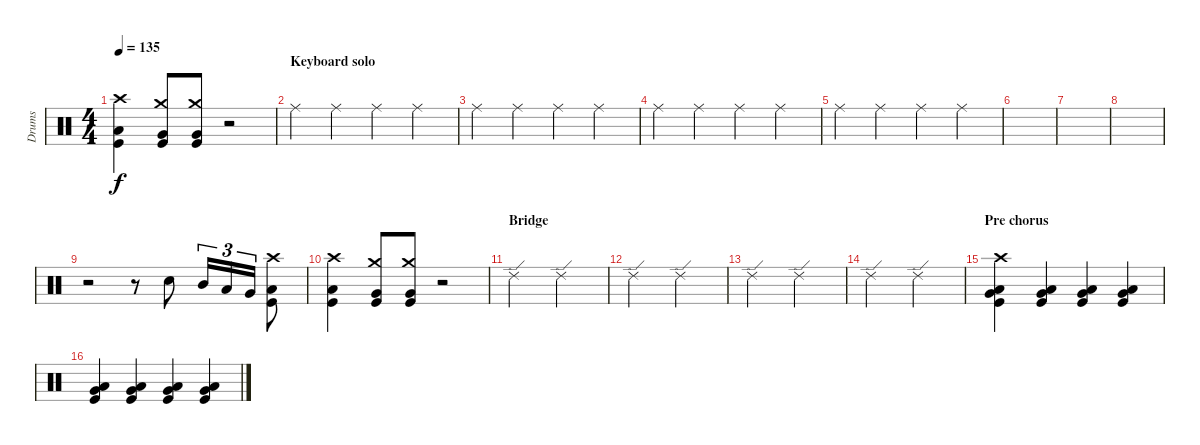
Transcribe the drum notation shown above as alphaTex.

\track ("Drums" "Drums") {instrument percussion}
\staff {score}
\articulation defaults
\ts (4 4)
\tempo 135
\clef neutral
\ks c
("Crash high (hit)" "Low Floor Tom (hit)" "Kick (hit)").4{dy f} ("Crash medium (hit)" "Very Low Tom (hit)" "Kick (hit)").8 ("Crash medium (hit)" "Very Low Tom (hit)" "Kick (hit)").8 r.2 |
\section ("" "Keyboard solo")
"Ride (middle)".4 "Ride (middle)".4 "Ride (middle)".4 "Ride (middle)".4 |
"Ride (middle)".4 "Ride (middle)".4 "Ride (middle)".4 "Ride (middle)".4 |
"Ride (middle)".4 "Ride (middle)".4 "Ride (middle)".4 "Ride (middle)".4 |
"Ride (middle)".4 "Ride (middle)".4 "Ride (middle)".4 "Ride (middle)".4 |
|
|
|
r.2 r.8 "Snare (hit) 2".8 "Mid Tom (hit)".16{tu (3 2)} "Low Tom (hit)".16{tu (3 2)} "Very Low Tom (hit)".16{tu (3 2)} ("Crash high (hit)" "Low Floor Tom (hit)" "Kick (hit)").8 |
("Crash high (hit)" "Low Floor Tom (hit)" "Kick (hit)").4 ("Crash medium (hit)" "Very Low Tom (hit)" "Kick (hit)").8 ("Crash medium (hit)" "Very Low Tom (hit)" "Kick (hit)").8 r.2 |
\section ("" "Bridge")
"Ride (edge) 2".2 "Ride (edge) 2".2 |
"Ride (edge) 2".2 "Ride (edge) 2".2 |
"Ride (edge) 2".2 "Ride (edge) 2".2 |
"Ride (edge) 2".2 "Ride (edge) 2".2 |
\section ("" "Pre chorus")
("Crash high (hit)" "Low Floor Tom (hit)" "Very Low Tom (hit)" "Kick (hit)").4 ("Low Floor Tom (hit)" "Very Low Tom (hit)" "Kick (hit)").4 ("Low Floor Tom (hit)" "Very Low Tom (hit)" "Kick (hit)").4 ("Low Floor Tom (hit)" "Very Low Tom (hit)" "Kick (hit)").4 |
("Low Floor Tom (hit)" "Very Low Tom (hit)" "Kick (hit)").4 ("Low Floor Tom (hit)" "Very Low Tom (hit)" "Kick (hit)").4 ("Low Floor Tom (hit)" "Very Low Tom (hit)" "Kick (hit)").4 ("Low Floor Tom (hit)" "Very Low Tom (hit)" "Kick (hit)").4
